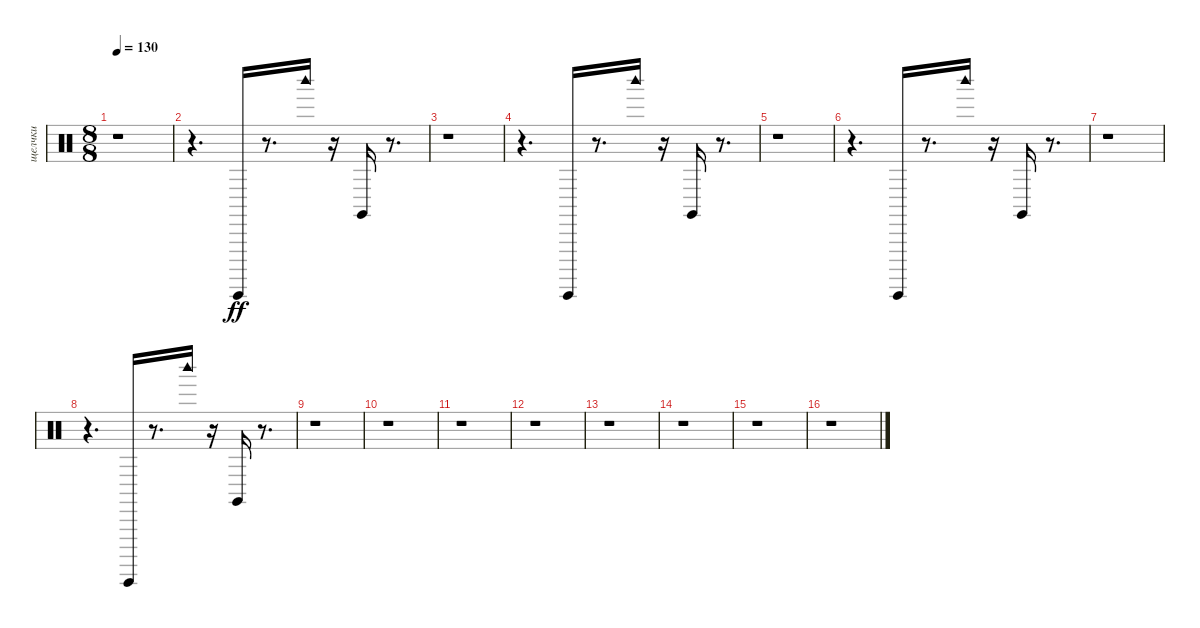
\track ("щелчки" "щелчки") {instrument percussion}
\staff {score}
\articulation defaults
\ts (8 8)
\tempo 130
\clef neutral
\ks c
r.1{dy ff} |
r.4{d} "Guiro (hit)".16 r.8{d} "Woodblock high (hit)".16 r.16 "Claves (hit)".16 r.8{d} |
r.1 |
r.4{d} "Guiro (hit)".16 r.8{d} "Woodblock high (hit)".16 r.16 "Claves (hit)".16 r.8{d} |
r.1 |
r.4{d} "Guiro (hit)".16 r.8{d} "Woodblock high (hit)".16 r.16 "Claves (hit)".16 r.8{d} |
r.1 |
r.4{d} "Guiro (hit)".16 r.8{d} "Woodblock high (hit)".16 r.16 "Claves (hit)".16 r.8{d} |
r.1 |
r.1 |
r.1 |
r.1 |
r.1 |
r.1 |
r.1 |
r.1
